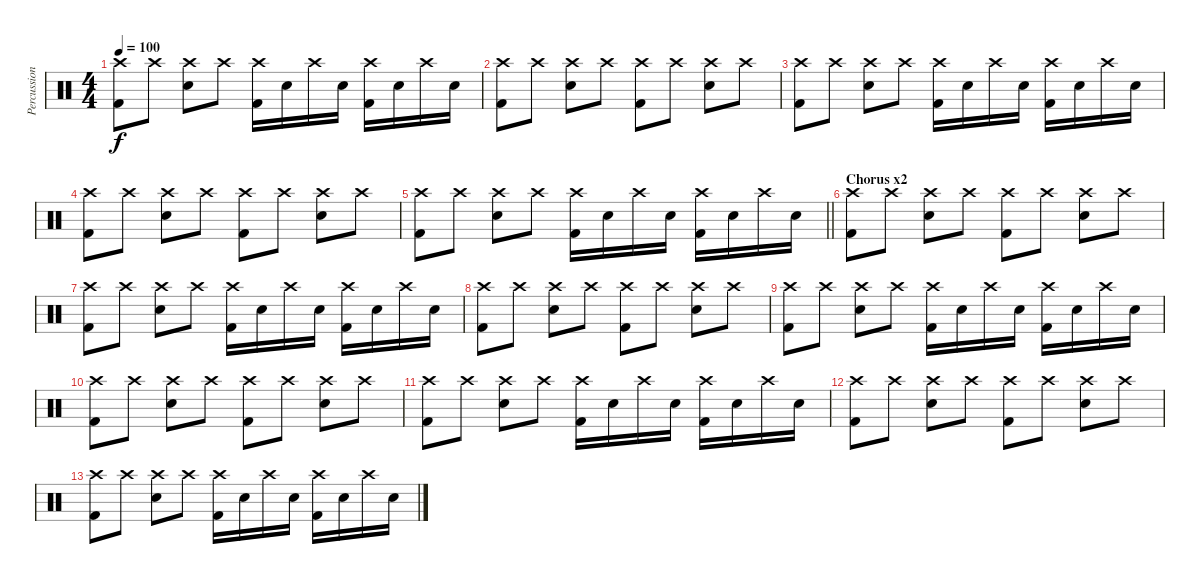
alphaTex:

\track ("Percussion" "Percussion") {instrument percussion}
\staff {score}
\articulation defaults
\ts (4 4)
\tempo 100
\clef neutral
\ks c
("Crash high (hit)" "Kick (hit) 2").8{dy f} "Crash high (hit)".8 ("Crash high (hit)" "Electric Snare (hit)").8 "Crash high (hit)".8 ("Crash high (hit)" "Kick (hit) 2").16 "Electric Snare (hit)".16 "Crash high (hit)".16 "Electric Snare (hit)".16 ("Crash high (hit)" "Kick (hit) 2").16 "Electric Snare (hit)".16 "Crash high (hit)".16 "Electric Snare (hit)".16 |
("Crash high (hit)" "Kick (hit) 2").8 "Crash high (hit)".8 ("Crash high (hit)" "Electric Snare (hit)").8 "Crash high (hit)".8 ("Crash high (hit)" "Kick (hit) 2").8 "Crash high (hit)".8 ("Crash high (hit)" "Electric Snare (hit)").8 "Crash high (hit)".8 |
("Crash high (hit)" "Kick (hit) 2").8 "Crash high (hit)".8 ("Crash high (hit)" "Electric Snare (hit)").8 "Crash high (hit)".8 ("Crash high (hit)" "Kick (hit) 2").16 "Electric Snare (hit)".16 "Crash high (hit)".16 "Electric Snare (hit)".16 ("Crash high (hit)" "Kick (hit) 2").16 "Electric Snare (hit)".16 "Crash high (hit)".16 "Electric Snare (hit)".16 |
("Crash high (hit)" "Kick (hit) 2").8 "Crash high (hit)".8 ("Crash high (hit)" "Electric Snare (hit)").8 "Crash high (hit)".8 ("Crash high (hit)" "Kick (hit) 2").8 "Crash high (hit)".8 ("Crash high (hit)" "Electric Snare (hit)").8 "Crash high (hit)".8 |
\barLineRight lightlight
("Crash high (hit)" "Kick (hit) 2").8 "Crash high (hit)".8 ("Crash high (hit)" "Electric Snare (hit)").8 "Crash high (hit)".8 ("Crash high (hit)" "Kick (hit) 2").16 "Electric Snare (hit)".16 "Crash high (hit)".16 "Electric Snare (hit)".16 ("Crash high (hit)" "Kick (hit) 2").16 "Electric Snare (hit)".16 "Crash high (hit)".16 "Electric Snare (hit)".16 |
\section ("" "Chorus x2")
("Crash high (hit)" "Kick (hit) 2").8 "Crash high (hit)".8 ("Crash high (hit)" "Electric Snare (hit)").8 "Crash high (hit)".8 ("Crash high (hit)" "Kick (hit) 2").8 "Crash high (hit)".8 ("Crash high (hit)" "Electric Snare (hit)").8 "Crash high (hit)".8 |
("Crash high (hit)" "Kick (hit) 2").8 "Crash high (hit)".8 ("Crash high (hit)" "Electric Snare (hit)").8 "Crash high (hit)".8 ("Crash high (hit)" "Kick (hit) 2").16 "Electric Snare (hit)".16 "Crash high (hit)".16 "Electric Snare (hit)".16 ("Crash high (hit)" "Kick (hit) 2").16 "Electric Snare (hit)".16 "Crash high (hit)".16 "Electric Snare (hit)".16 |
("Crash high (hit)" "Kick (hit) 2").8 "Crash high (hit)".8 ("Crash high (hit)" "Electric Snare (hit)").8 "Crash high (hit)".8 ("Crash high (hit)" "Kick (hit) 2").8 "Crash high (hit)".8 ("Crash high (hit)" "Electric Snare (hit)").8 "Crash high (hit)".8 |
("Crash high (hit)" "Kick (hit) 2").8 "Crash high (hit)".8 ("Crash high (hit)" "Electric Snare (hit)").8 "Crash high (hit)".8 ("Crash high (hit)" "Kick (hit) 2").16 "Electric Snare (hit)".16 "Crash high (hit)".16 "Electric Snare (hit)".16 ("Crash high (hit)" "Kick (hit) 2").16 "Electric Snare (hit)".16 "Crash high (hit)".16 "Electric Snare (hit)".16 |
("Crash high (hit)" "Kick (hit) 2").8 "Crash high (hit)".8 ("Crash high (hit)" "Electric Snare (hit)").8 "Crash high (hit)".8 ("Crash high (hit)" "Kick (hit) 2").8 "Crash high (hit)".8 ("Crash high (hit)" "Electric Snare (hit)").8 "Crash high (hit)".8 |
("Crash high (hit)" "Kick (hit) 2").8 "Crash high (hit)".8 ("Crash high (hit)" "Electric Snare (hit)").8 "Crash high (hit)".8 ("Crash high (hit)" "Kick (hit) 2").16 "Electric Snare (hit)".16 "Crash high (hit)".16 "Electric Snare (hit)".16 ("Crash high (hit)" "Kick (hit) 2").16 "Electric Snare (hit)".16 "Crash high (hit)".16 "Electric Snare (hit)".16 |
("Crash high (hit)" "Kick (hit) 2").8 "Crash high (hit)".8 ("Crash high (hit)" "Electric Snare (hit)").8 "Crash high (hit)".8 ("Crash high (hit)" "Kick (hit) 2").8 "Crash high (hit)".8 ("Crash high (hit)" "Electric Snare (hit)").8 "Crash high (hit)".8 |
("Crash high (hit)" "Kick (hit) 2").8 "Crash high (hit)".8 ("Crash high (hit)" "Electric Snare (hit)").8 "Crash high (hit)".8 ("Crash high (hit)" "Kick (hit) 2").16 "Electric Snare (hit)".16 "Crash high (hit)".16 "Electric Snare (hit)".16 ("Crash high (hit)" "Kick (hit) 2").16 "Electric Snare (hit)".16 "Crash high (hit)".16 "Electric Snare (hit)".16
